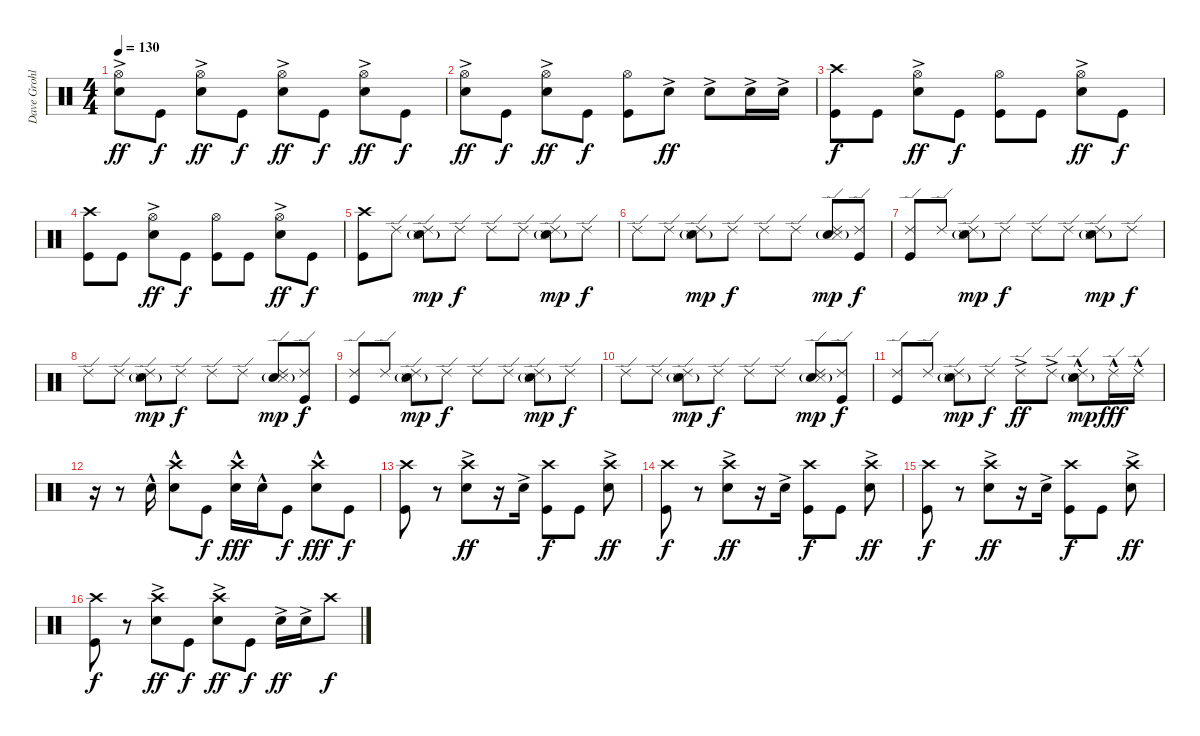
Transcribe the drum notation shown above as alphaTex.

\track ("Dave Grohl" "Dave Grohl") {instrument percussion}
\staff {score}
\articulation defaults
\ts (4 4)
\tempo 130
\clef neutral
\ks c
("Hi-Hat (open)" "Electric Snare (hit)"{ac}).8{dy ff} "Kick (hit)".8{dy f} ("Hi-Hat (open)" "Electric Snare (hit)"{ac}).8{dy ff} "Kick (hit)".8{dy f} ("Hi-Hat (open)" "Electric Snare (hit)"{ac}).8{dy ff} "Kick (hit)".8{dy f} ("Hi-Hat (open)" "Electric Snare (hit)"{ac}).8{dy ff} "Kick (hit)".8{dy f} |
("Hi-Hat (open)" "Electric Snare (hit)"{ac}).8{dy ff} "Kick (hit)".8{dy f} ("Hi-Hat (open)" "Electric Snare (hit)"{ac}).8{dy ff} "Kick (hit)".8{dy f} ("Hi-Hat (open)" "Kick (hit)").8 "Electric Snare (hit)"{ac}.8{dy ff} "Electric Snare (hit)"{ac}.8 "Electric Snare (hit)"{ac}.16 "Electric Snare (hit)"{ac}.16 |
("Crash high (hit)" "Kick (hit)").8{dy f} "Kick (hit)".8 ("Hi-Hat (open)" "Electric Snare (hit)"{ac}).8{dy ff} "Kick (hit)".8{dy f} ("Hi-Hat (open)" "Kick (hit)").8 "Kick (hit)".8 ("Hi-Hat (open)" "Electric Snare (hit)"{ac}).8{dy ff} "Kick (hit)".8{dy f} |
("Crash high (hit)" "Kick (hit)").8 "Kick (hit)".8 ("Hi-Hat (open)" "Electric Snare (hit)"{ac}).8{dy ff} "Kick (hit)".8{dy f} ("Hi-Hat (open)" "Kick (hit)").8 "Kick (hit)".8 ("Hi-Hat (open)" "Electric Snare (hit)"{ac}).8{dy ff} "Kick (hit)".8{dy f} |
("Crash high (hit)" "Kick (hit)").8 "Ride (edge) 2".8 ("Ride (edge) 2" "Electric Snare (hit)"{g} "Snare (side stick) 3").8{dy mp} "Ride (edge) 2".8{dy f} "Ride (edge) 2".8 "Ride (edge) 2".8 ("Ride (edge) 2" "Electric Snare (hit)"{g} "Snare (side stick) 3").8{dy mp} "Ride (edge) 2".8{dy f} |
"Ride (edge) 2".8 "Ride (edge) 2".8 ("Ride (edge) 2" "Electric Snare (hit)"{g} "Snare (side stick) 3").8{dy mp} "Ride (edge) 2".8{dy f} "Ride (edge) 2".8 "Ride (edge) 2".8 ("Ride (edge) 2" "Electric Snare (hit)"{g} "Snare (side stick) 3").8{dy mp} ("Ride (edge) 2" "Kick (hit)").8{dy f} |
("Ride (edge) 2" "Kick (hit)").8 "Ride (edge) 2".8 ("Ride (edge) 2" "Electric Snare (hit)"{g} "Snare (side stick) 3").8{dy mp} "Ride (edge) 2".8{dy f} "Ride (edge) 2".8 "Ride (edge) 2".8 ("Ride (edge) 2" "Electric Snare (hit)"{g} "Snare (side stick) 3").8{dy mp} "Ride (edge) 2".8{dy f} |
"Ride (edge) 2".8 "Ride (edge) 2".8 ("Ride (edge) 2" "Electric Snare (hit)"{g} "Snare (side stick) 3").8{dy mp} "Ride (edge) 2".8{dy f} "Ride (edge) 2".8 "Ride (edge) 2".8 ("Ride (edge) 2" "Electric Snare (hit)"{g} "Snare (side stick) 3").8{dy mp} ("Ride (edge) 2" "Kick (hit)").8{dy f} |
("Ride (edge) 2" "Kick (hit)").8 "Ride (edge) 2".8 ("Ride (edge) 2" "Electric Snare (hit)"{g} "Snare (side stick) 3").8{dy mp} "Ride (edge) 2".8{dy f} "Ride (edge) 2".8 "Ride (edge) 2".8 ("Ride (edge) 2" "Electric Snare (hit)"{g} "Snare (side stick) 3").8{dy mp} "Ride (edge) 2".8{dy f} |
"Ride (edge) 2".8 "Ride (edge) 2".8 ("Ride (edge) 2" "Electric Snare (hit)"{g} "Snare (side stick) 3").8{dy mp} "Ride (edge) 2".8{dy f} "Ride (edge) 2".8 "Ride (edge) 2".8 ("Ride (edge) 2" "Electric Snare (hit)"{g} "Snare (side stick) 3").8{dy mp} ("Ride (edge) 2" "Kick (hit)").8{dy f} |
("Ride (edge) 2" "Kick (hit)").8 "Ride (edge) 2".8 ("Ride (edge) 2" "Electric Snare (hit)"{g} "Snare (side stick) 3").8{dy mp} "Ride (edge) 2".8{dy f} "Ride (edge) 2"{ac}.8{dy ff} "Ride (edge) 2"{ac}.8 ("Ride (edge) 2"{hac} "Electric Snare (hit)"{g} "Snare (side stick) 3").8{dy mp} "Ride (edge) 2"{hac}.16{dy fff} "Ride (edge) 2"{hac}.16 |
r.16 r.8 "Electric Snare (hit)"{hac}.16 ("Crash high (hit)" "Electric Snare (hit)"{hac}).8 "Kick (hit)".8{dy f} ("Crash high (hit)" "Electric Snare (hit)"{hac}).16{dy fff} "Electric Snare (hit)"{hac}.16 "Kick (hit)".8{dy f} ("Crash high (hit)" "Electric Snare (hit)"{hac}).8{dy fff} "Kick (hit)".8{dy f} |
("Crash high (hit)" "Kick (hit)").8 r.8 ("Crash high (hit)" "Electric Snare (hit)"{ac}).8{dy ff} r.16 "Electric Snare (hit)"{ac}.16 ("Crash high (hit)" "Kick (hit)").8{dy f} "Kick (hit)".8 ("Crash high (hit)" "Electric Snare (hit)"{ac}).8{dy ff} |
("Crash high (hit)" "Kick (hit)").8{dy f} r.8 ("Crash high (hit)" "Electric Snare (hit)"{ac}).8{dy ff} r.16 "Electric Snare (hit)"{ac}.16 ("Crash high (hit)" "Kick (hit)").8{dy f} "Kick (hit)".8 ("Crash high (hit)" "Electric Snare (hit)"{ac}).8{dy ff} |
("Crash high (hit)" "Kick (hit)").8{dy f} r.8 ("Crash high (hit)" "Electric Snare (hit)"{ac}).8{dy ff} r.16 "Electric Snare (hit)"{ac}.16 ("Crash high (hit)" "Kick (hit)").8{dy f} "Kick (hit)".8 ("Crash high (hit)" "Electric Snare (hit)"{ac}).8{dy ff} |
("Crash high (hit)" "Kick (hit)").8{dy f} r.8 ("Crash high (hit)" "Electric Snare (hit)"{ac}).8{dy ff} "Kick (hit)".8{dy f} ("Crash high (hit)" "Electric Snare (hit)"{ac}).8{dy ff} "Kick (hit)".8{dy f} "Electric Snare (hit)"{ac}.16{dy ff} "Electric Snare (hit)"{ac}.16 "Crash high (hit)".8{dy f}
